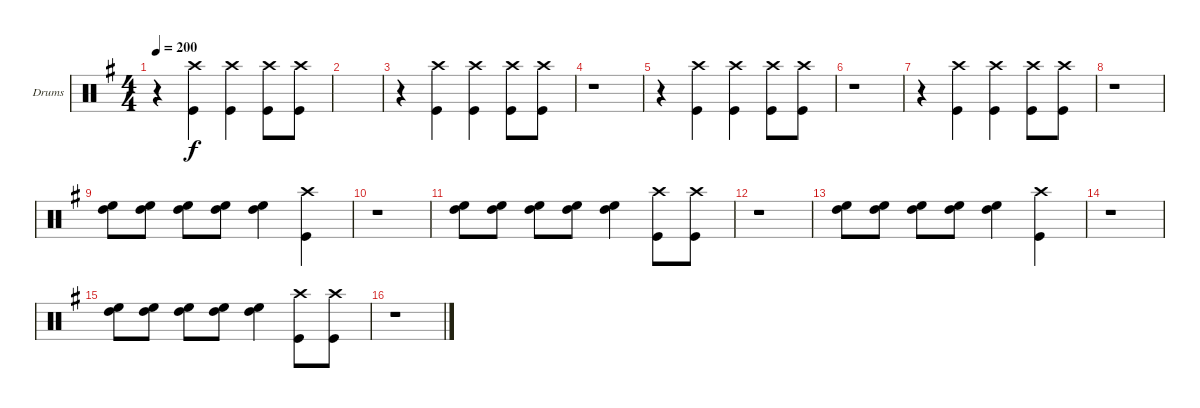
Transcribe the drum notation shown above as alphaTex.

\bracketExtendMode groupsimilarinstruments
\firstSystemTrackNameOrientation horizontal
\otherSystemsTrackNameOrientation horizontal
\track ("Drumkit" "Drums") {instrument percussion}
\staff {score}
\articulation defaults
\ts (4 4)
\tempo 200
\clef neutral
\ks g
r.4{dy f} ("Kick (hit)" "Crash high (hit)").4 ("Kick (hit)" "Crash high (hit)").4 ("Kick (hit)" "Crash high (hit)").8 ("Kick (hit)" "Crash high (hit)").8 |
|
r.4 ("Kick (hit)" "Crash high (hit)").4 ("Kick (hit)" "Crash high (hit)").4 ("Kick (hit)" "Crash high (hit)").8 ("Kick (hit)" "Crash high (hit)").8 |
r.1 |
r.4 ("Crash high (hit)" "Kick (hit)").4 ("Crash high (hit)" "Kick (hit)").4 ("Kick (hit)" "Crash high (hit)").8 ("Kick (hit)" "Crash high (hit)").8 |
r.1 |
r.4 ("Kick (hit)" "Crash high (hit)").4 ("Kick (hit)" "Crash high (hit)").4 ("Kick (hit)" "Crash high (hit)").8 ("Kick (hit)" "Crash high (hit)").8 |
r.1 |
("High Floor Tom (hit)" "High Tom (hit)").8 ("High Floor Tom (hit)" "High Tom (hit)").8 ("High Floor Tom (hit)" "High Tom (hit)").8 ("High Floor Tom (hit)" "High Tom (hit)").8 ("High Floor Tom (hit)" "High Tom (hit)").4 ("Crash high (hit)" "Kick (hit)").4 |
r.1 |
("High Floor Tom (hit)" "High Tom (hit)").8 ("High Floor Tom (hit)" "High Tom (hit)").8 ("High Floor Tom (hit)" "High Tom (hit)").8 ("High Floor Tom (hit)" "High Tom (hit)").8 ("High Floor Tom (hit)" "High Tom (hit)").4 ("Crash high (hit)" "Kick (hit)").8 ("Kick (hit)" "Crash high (hit)").8 |
r.1 |
("High Floor Tom (hit)" "High Tom (hit)").8 ("High Floor Tom (hit)" "High Tom (hit)").8 ("High Floor Tom (hit)" "High Tom (hit)").8 ("High Floor Tom (hit)" "High Tom (hit)").8 ("High Floor Tom (hit)" "High Tom (hit)").4 ("Crash high (hit)" "Kick (hit)").4 |
r.1 |
("High Floor Tom (hit)" "High Tom (hit)").8 ("High Floor Tom (hit)" "High Tom (hit)").8 ("High Floor Tom (hit)" "High Tom (hit)").8 ("High Floor Tom (hit)" "High Tom (hit)").8 ("High Floor Tom (hit)" "High Tom (hit)").4 ("Crash high (hit)" "Kick (hit)").8 ("Kick (hit)" "Crash high (hit)").8 |
r.1
